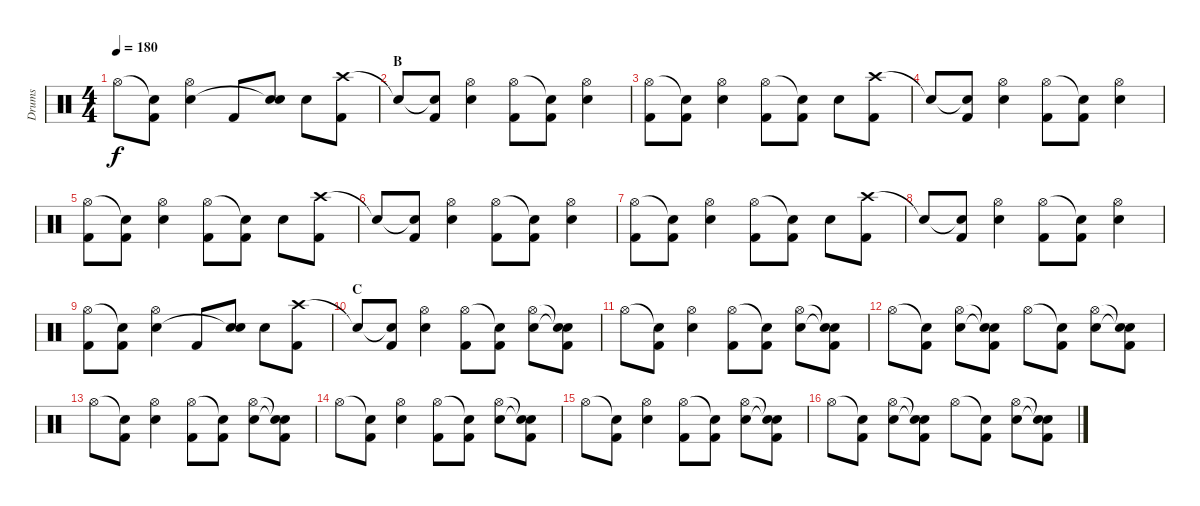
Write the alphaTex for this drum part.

\track ("Drums" "Drums") {instrument percussion}
\staff {score}
\articulation defaults
\ts (4 4)
\tempo 180
\clef neutral
\ks c "Hi-Hat (open)".8{dy f}
("Snare (hit)"{t} "Kick (hit) 2").8 ("Hi-Hat (open)" "Snare (hit) 2").4 "Kick (hit) 2".8 ("Snare (hit) 2" "Snare (hit)"{t}).8 "Snare (hit) 2".8 ("Crash high (hit)" "Kick (hit) 2").8 |
\section ("" "B")
"Snare (hit)"{t}.8 ("Snare (hit)"{t} "Kick (hit) 2").8 ("Hi-Hat (open)" "Snare (hit) 2").4 ("Hi-Hat (open)" "Kick (hit) 2").8 ("Snare (hit)"{t} "Kick (hit) 2").8 ("Hi-Hat (open)" "Snare (hit) 2").4 |
("Hi-Hat (open)" "Kick (hit) 2").8 ("Snare (hit)"{t} "Kick (hit) 2").8 ("Hi-Hat (open)" "Snare (hit) 2").4 ("Hi-Hat (open)" "Kick (hit) 2").8 ("Snare (hit)"{t} "Kick (hit) 2").8 "Snare (hit) 2".8 ("Crash high (hit)" "Kick (hit) 2").8 |
"Snare (hit)"{t}.8 ("Snare (hit)"{t} "Kick (hit) 2").8 ("Hi-Hat (open)" "Snare (hit) 2").4 ("Hi-Hat (open)" "Kick (hit) 2").8 ("Snare (hit)"{t} "Kick (hit) 2").8 ("Hi-Hat (open)" "Snare (hit) 2").4 |
("Hi-Hat (open)" "Kick (hit) 2").8 ("Snare (hit)"{t} "Kick (hit) 2").8 ("Hi-Hat (open)" "Snare (hit) 2").4 ("Hi-Hat (open)" "Kick (hit) 2").8 ("Snare (hit)"{t} "Kick (hit) 2").8 "Snare (hit) 2".8 ("Crash high (hit)" "Kick (hit) 2").8 |
"Snare (hit)"{t}.8 ("Snare (hit)"{t} "Kick (hit) 2").8 ("Hi-Hat (open)" "Snare (hit) 2").4 ("Hi-Hat (open)" "Kick (hit) 2").8 ("Snare (hit)"{t} "Kick (hit) 2").8 ("Hi-Hat (open)" "Snare (hit) 2").4 |
("Hi-Hat (open)" "Kick (hit) 2").8 ("Snare (hit)"{t} "Kick (hit) 2").8 ("Hi-Hat (open)" "Snare (hit) 2").4 ("Hi-Hat (open)" "Kick (hit) 2").8 ("Snare (hit)"{t} "Kick (hit) 2").8 "Snare (hit) 2".8 ("Crash high (hit)" "Kick (hit) 2").8 |
"Snare (hit)"{t}.8 ("Snare (hit)"{t} "Kick (hit) 2").8 ("Hi-Hat (open)" "Snare (hit) 2").4 ("Hi-Hat (open)" "Kick (hit) 2").8 ("Snare (hit)"{t} "Kick (hit) 2").8 ("Hi-Hat (open)" "Snare (hit) 2").4 |
("Hi-Hat (open)" "Kick (hit) 2").8 ("Snare (hit)"{t} "Kick (hit) 2").8 ("Hi-Hat (open)" "Snare (hit) 2").4 "Kick (hit) 2".8 ("Snare (hit) 2" "Snare (hit)"{t}).8 "Snare (hit) 2".8 ("Crash high (hit)" "Kick (hit) 2").8 |
\section ("" "C")
"Snare (hit)"{t}.8 ("Snare (hit)"{t} "Kick (hit) 2").8 ("Hi-Hat (open)" "Snare (hit) 2").4 ("Hi-Hat (open)" "Kick (hit) 2").8 ("Snare (hit)"{t} "Kick (hit) 2").8 ("Hi-Hat (open)" "Snare (hit) 2").8 ("Snare (hit)"{t} "Snare (hit)"{t} "Kick (hit) 2").8 |
"Hi-Hat (open)".8 ("Snare (hit)"{t} "Kick (hit) 2").8 ("Hi-Hat (open)" "Snare (hit) 2").4 ("Hi-Hat (open)" "Kick (hit) 2").8 ("Snare (hit)"{t} "Kick (hit) 2").8 ("Hi-Hat (open)" "Snare (hit) 2").8 ("Snare (hit)"{t} "Snare (hit)"{t} "Kick (hit) 2").8 |
"Hi-Hat (open)".8 ("Snare (hit)"{t} "Kick (hit) 2").8 ("Hi-Hat (open)" "Snare (hit) 2").8 ("Snare (hit)"{t} "Snare (hit)"{t} "Kick (hit) 2").8 "Hi-Hat (open)".8 ("Snare (hit)"{t} "Kick (hit) 2").8 ("Hi-Hat (open)" "Snare (hit) 2").8 ("Snare (hit)"{t} "Snare (hit)"{t} "Kick (hit) 2").8 |
"Hi-Hat (open)".8 ("Snare (hit)"{t} "Kick (hit) 2").8 ("Hi-Hat (open)" "Snare (hit) 2").4 ("Hi-Hat (open)" "Kick (hit) 2").8 ("Snare (hit)"{t} "Kick (hit) 2").8 ("Hi-Hat (open)" "Snare (hit) 2").8 ("Snare (hit)"{t} "Snare (hit)"{t} "Kick (hit) 2").8 |
"Hi-Hat (open)".8 ("Snare (hit)"{t} "Kick (hit) 2").8 ("Hi-Hat (open)" "Snare (hit) 2").4 ("Hi-Hat (open)" "Kick (hit) 2").8 ("Snare (hit)"{t} "Kick (hit) 2").8 ("Hi-Hat (open)" "Snare (hit) 2").8 ("Snare (hit)"{t} "Snare (hit)"{t} "Kick (hit) 2").8 |
"Hi-Hat (open)".8 ("Snare (hit)"{t} "Kick (hit) 2").8 ("Hi-Hat (open)" "Snare (hit) 2").4 ("Hi-Hat (open)" "Kick (hit) 2").8 ("Snare (hit)"{t} "Kick (hit) 2").8 ("Hi-Hat (open)" "Snare (hit) 2").8 ("Snare (hit)"{t} "Snare (hit)"{t} "Kick (hit) 2").8 |
"Hi-Hat (open)".8 ("Snare (hit)"{t} "Kick (hit) 2").8 ("Hi-Hat (open)" "Snare (hit) 2").8 ("Snare (hit)"{t} "Snare (hit)"{t} "Kick (hit) 2").8 "Hi-Hat (open)".8 ("Snare (hit)"{t} "Kick (hit) 2").8 ("Hi-Hat (open)" "Snare (hit) 2").8 ("Snare (hit)"{t} "Snare (hit)"{t} "Kick (hit) 2").8
